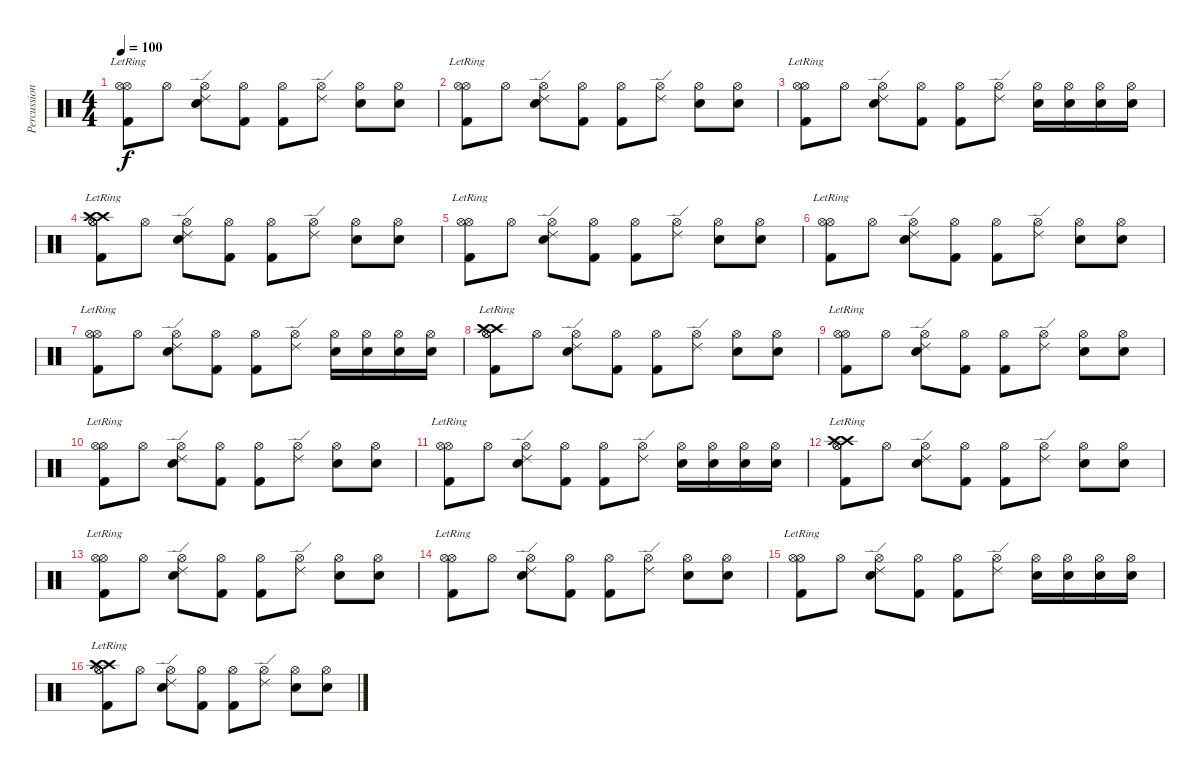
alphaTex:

\track ("Percussion" "Percussion") {instrument percussion}
\staff {score}
\articulation defaults
\ts (4 4)
\tempo 100
\clef neutral
\ks c
("Hi-Hat (open)" "Kick (hit) 2"{lr} "Hi-Hat (open)"{lr}).8{dy f} "Hi-Hat (open)".8 ("Ride (edge) 2" "Hi-Hat (open)" "Electric Snare (hit)").8 ("Hi-Hat (open)" "Kick (hit) 2").8 ("Hi-Hat (open)" "Kick (hit) 2").8 ("Ride (edge) 2" "Hi-Hat (open)").8 ("Hi-Hat (open)" "Electric Snare (hit)").8 ("Hi-Hat (open)" "Electric Snare (hit)").8 |
("Hi-Hat (open)" "Kick (hit) 2"{lr} "Hi-Hat (open)"{lr}).8 "Hi-Hat (open)".8 ("Ride (edge) 2" "Hi-Hat (open)" "Electric Snare (hit)").8 ("Hi-Hat (open)" "Kick (hit) 2").8 ("Hi-Hat (open)" "Kick (hit) 2").8 ("Ride (edge) 2" "Hi-Hat (open)").8 ("Hi-Hat (open)" "Electric Snare (hit)").8 ("Hi-Hat (open)" "Electric Snare (hit)").8 |
("Hi-Hat (open)" "Kick (hit) 2"{lr} "Hi-Hat (open)"{lr}).8 "Hi-Hat (open)".8 ("Ride (edge) 2" "Hi-Hat (open)" "Electric Snare (hit)").8 ("Hi-Hat (open)" "Kick (hit) 2").8 ("Hi-Hat (open)" "Kick (hit) 2").8 ("Ride (edge) 2" "Hi-Hat (open)").8 ("Hi-Hat (open)" "Electric Snare (hit)").16 ("Hi-Hat (open)" "Electric Snare (hit)").16 ("Hi-Hat (open)" "Electric Snare (hit)").16 ("Hi-Hat (open)" "Electric Snare (hit)").16 |
("Crash high (hit)"{lr} "Hi-Hat (open)" "Kick (hit) 2"{lr} "Hi-Hat (open)"{lr} "Crash high (hit)"{lr}).8 "Hi-Hat (open)".8 ("Ride (edge) 2" "Hi-Hat (open)" "Electric Snare (hit)").8 ("Hi-Hat (open)" "Kick (hit) 2").8 ("Hi-Hat (open)" "Kick (hit) 2").8 ("Ride (edge) 2" "Hi-Hat (open)").8 ("Hi-Hat (open)" "Electric Snare (hit)").8 ("Hi-Hat (open)" "Electric Snare (hit)").8 |
("Hi-Hat (open)" "Kick (hit) 2"{lr} "Hi-Hat (open)"{lr}).8 "Hi-Hat (open)".8 ("Ride (edge) 2" "Hi-Hat (open)" "Electric Snare (hit)").8 ("Hi-Hat (open)" "Kick (hit) 2").8 ("Hi-Hat (open)" "Kick (hit) 2").8 ("Ride (edge) 2" "Hi-Hat (open)").8 ("Hi-Hat (open)" "Electric Snare (hit)").8 ("Hi-Hat (open)" "Electric Snare (hit)").8 |
("Hi-Hat (open)" "Kick (hit) 2"{lr} "Hi-Hat (open)"{lr}).8 "Hi-Hat (open)".8 ("Ride (edge) 2" "Hi-Hat (open)" "Electric Snare (hit)").8 ("Hi-Hat (open)" "Kick (hit) 2").8 ("Hi-Hat (open)" "Kick (hit) 2").8 ("Ride (edge) 2" "Hi-Hat (open)").8 ("Hi-Hat (open)" "Electric Snare (hit)").8 ("Hi-Hat (open)" "Electric Snare (hit)").8 |
("Hi-Hat (open)" "Kick (hit) 2"{lr} "Hi-Hat (open)"{lr}).8 "Hi-Hat (open)".8 ("Ride (edge) 2" "Hi-Hat (open)" "Electric Snare (hit)").8 ("Hi-Hat (open)" "Kick (hit) 2").8 ("Hi-Hat (open)" "Kick (hit) 2").8 ("Ride (edge) 2" "Hi-Hat (open)").8 ("Hi-Hat (open)" "Electric Snare (hit)").16 ("Hi-Hat (open)" "Electric Snare (hit)").16 ("Hi-Hat (open)" "Electric Snare (hit)").16 ("Hi-Hat (open)" "Electric Snare (hit)").16 |
("Crash high (hit)"{lr} "Hi-Hat (open)" "Kick (hit) 2"{lr} "Hi-Hat (open)"{lr} "Crash high (hit)"{lr}).8 "Hi-Hat (open)".8 ("Ride (edge) 2" "Hi-Hat (open)" "Electric Snare (hit)").8 ("Hi-Hat (open)" "Kick (hit) 2").8 ("Hi-Hat (open)" "Kick (hit) 2").8 ("Ride (edge) 2" "Hi-Hat (open)").8 ("Hi-Hat (open)" "Electric Snare (hit)").8 ("Hi-Hat (open)" "Electric Snare (hit)").8 |
("Hi-Hat (open)" "Kick (hit) 2"{lr} "Hi-Hat (open)"{lr}).8 "Hi-Hat (open)".8 ("Ride (edge) 2" "Hi-Hat (open)" "Electric Snare (hit)").8 ("Hi-Hat (open)" "Kick (hit) 2").8 ("Hi-Hat (open)" "Kick (hit) 2").8 ("Ride (edge) 2" "Hi-Hat (open)").8 ("Hi-Hat (open)" "Electric Snare (hit)").8 ("Hi-Hat (open)" "Electric Snare (hit)").8 |
("Hi-Hat (open)" "Kick (hit) 2"{lr} "Hi-Hat (open)"{lr}).8 "Hi-Hat (open)".8 ("Ride (edge) 2" "Hi-Hat (open)" "Electric Snare (hit)").8 ("Hi-Hat (open)" "Kick (hit) 2").8 ("Hi-Hat (open)" "Kick (hit) 2").8 ("Ride (edge) 2" "Hi-Hat (open)").8 ("Hi-Hat (open)" "Electric Snare (hit)").8 ("Hi-Hat (open)" "Electric Snare (hit)").8 |
("Hi-Hat (open)" "Kick (hit) 2"{lr} "Hi-Hat (open)"{lr}).8 "Hi-Hat (open)".8 ("Ride (edge) 2" "Hi-Hat (open)" "Electric Snare (hit)").8 ("Hi-Hat (open)" "Kick (hit) 2").8 ("Hi-Hat (open)" "Kick (hit) 2").8 ("Ride (edge) 2" "Hi-Hat (open)").8 ("Hi-Hat (open)" "Electric Snare (hit)").16 ("Hi-Hat (open)" "Electric Snare (hit)").16 ("Hi-Hat (open)" "Electric Snare (hit)").16 ("Hi-Hat (open)" "Electric Snare (hit)").16 |
("Crash high (hit)"{lr} "Hi-Hat (open)" "Kick (hit) 2"{lr} "Hi-Hat (open)"{lr} "Crash high (hit)"{lr}).8 "Hi-Hat (open)".8 ("Ride (edge) 2" "Hi-Hat (open)" "Electric Snare (hit)").8 ("Hi-Hat (open)" "Kick (hit) 2").8 ("Hi-Hat (open)" "Kick (hit) 2").8 ("Ride (edge) 2" "Hi-Hat (open)").8 ("Hi-Hat (open)" "Electric Snare (hit)").8 ("Hi-Hat (open)" "Electric Snare (hit)").8 |
("Hi-Hat (open)" "Kick (hit) 2"{lr} "Hi-Hat (open)"{lr}).8 "Hi-Hat (open)".8 ("Ride (edge) 2" "Hi-Hat (open)" "Electric Snare (hit)").8 ("Hi-Hat (open)" "Kick (hit) 2").8 ("Hi-Hat (open)" "Kick (hit) 2").8 ("Ride (edge) 2" "Hi-Hat (open)").8 ("Hi-Hat (open)" "Electric Snare (hit)").8 ("Hi-Hat (open)" "Electric Snare (hit)").8 |
("Hi-Hat (open)" "Kick (hit) 2"{lr} "Hi-Hat (open)"{lr}).8 "Hi-Hat (open)".8 ("Ride (edge) 2" "Hi-Hat (open)" "Electric Snare (hit)").8 ("Hi-Hat (open)" "Kick (hit) 2").8 ("Hi-Hat (open)" "Kick (hit) 2").8 ("Ride (edge) 2" "Hi-Hat (open)").8 ("Hi-Hat (open)" "Electric Snare (hit)").8 ("Hi-Hat (open)" "Electric Snare (hit)").8 |
("Hi-Hat (open)" "Kick (hit) 2"{lr} "Hi-Hat (open)"{lr}).8 "Hi-Hat (open)".8 ("Ride (edge) 2" "Hi-Hat (open)" "Electric Snare (hit)").8 ("Hi-Hat (open)" "Kick (hit) 2").8 ("Hi-Hat (open)" "Kick (hit) 2").8 ("Ride (edge) 2" "Hi-Hat (open)").8 ("Hi-Hat (open)" "Electric Snare (hit)").16 ("Hi-Hat (open)" "Electric Snare (hit)").16 ("Hi-Hat (open)" "Electric Snare (hit)").16 ("Hi-Hat (open)" "Electric Snare (hit)").16 |
("Crash high (hit)"{lr} "Hi-Hat (open)" "Kick (hit) 2"{lr} "Hi-Hat (open)"{lr} "Crash high (hit)"{lr}).8 "Hi-Hat (open)".8 ("Ride (edge) 2" "Hi-Hat (open)" "Electric Snare (hit)").8 ("Hi-Hat (open)" "Kick (hit) 2").8 ("Hi-Hat (open)" "Kick (hit) 2").8 ("Ride (edge) 2" "Hi-Hat (open)").8 ("Hi-Hat (open)" "Electric Snare (hit)").8 ("Hi-Hat (open)" "Electric Snare (hit)").8
